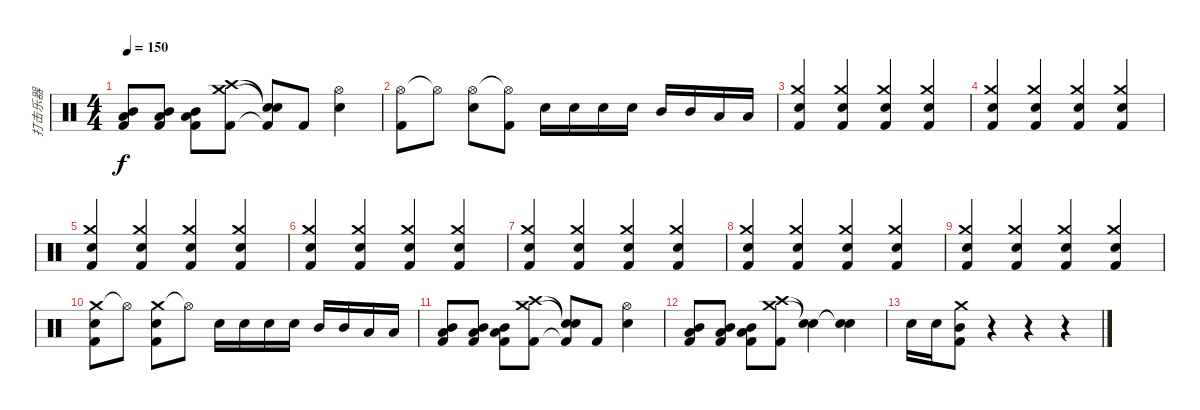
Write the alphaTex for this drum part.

\track ("打击乐器" "打击乐器") {instrument percussion}
\staff {score}
\articulation defaults
\ts (4 4)
\tempo 150
\clef neutral
\ks c
("Mid Tom (hit)" "Low Tom (hit)" "Kick (hit) 2").8{dy f} ("Mid Tom (hit)" "Low Tom (hit)" "Kick (hit) 2").8 ("Mid Tom (hit)" "Low Tom (hit)" "Kick (hit) 2").8 ("Crash high (hit)" "Crash medium (hit)" "Kick (hit) 2").8 ("Snare (hit)"{t} "Snare (hit)"{t} "Kick (hit) 2"{t}).8 "Kick (hit) 2".8 ("Hi-Hat (open)" "Snare (hit) 2").4 |
("Hi-Hat (open)" "Kick (hit) 2").8 "Hi-Hat (open)"{t}.8 ("Hi-Hat (open)" "Snare (hit) 2").8 ("Hi-Hat (open)"{t} "Kick (hit) 2").8 "Snare (hit) 2".16 "Snare (hit) 2".16 "Snare (hit) 2".16 "Snare (hit) 2".16 "Mid Tom (hit)".16 "Mid Tom (hit)".16 "Low Tom (hit)".16 "Low Tom (hit)".16 |
("Crash medium (hit)" "Snare (hit) 2" "Kick (hit) 2").4 ("Crash medium (hit)" "Snare (hit) 2" "Kick (hit) 2").4 ("Crash medium (hit)" "Snare (hit) 2" "Kick (hit) 2").4 ("Crash medium (hit)" "Snare (hit) 2" "Kick (hit) 2").4 |
("Crash medium (hit)" "Snare (hit) 2" "Kick (hit) 2").4 ("Crash medium (hit)" "Snare (hit) 2" "Kick (hit) 2").4 ("Crash medium (hit)" "Snare (hit) 2" "Kick (hit) 2").4 ("Crash medium (hit)" "Snare (hit) 2" "Kick (hit) 2").4 |
("Crash medium (hit)" "Snare (hit) 2" "Kick (hit) 2").4 ("Crash medium (hit)" "Snare (hit) 2" "Kick (hit) 2").4 ("Crash medium (hit)" "Snare (hit) 2" "Kick (hit) 2").4 ("Crash medium (hit)" "Snare (hit) 2" "Kick (hit) 2").4 |
("Crash medium (hit)" "Snare (hit) 2" "Kick (hit) 2").4 ("Crash medium (hit)" "Snare (hit) 2" "Kick (hit) 2").4 ("Crash medium (hit)" "Snare (hit) 2" "Kick (hit) 2").4 ("Crash medium (hit)" "Snare (hit) 2" "Kick (hit) 2").4 |
("Crash medium (hit)" "Snare (hit) 2" "Kick (hit) 2").4 ("Crash medium (hit)" "Snare (hit) 2" "Kick (hit) 2").4 ("Crash medium (hit)" "Snare (hit) 2" "Kick (hit) 2").4 ("Crash medium (hit)" "Snare (hit) 2" "Kick (hit) 2").4 |
("Crash medium (hit)" "Snare (hit) 2" "Kick (hit) 2").4 ("Crash medium (hit)" "Snare (hit) 2" "Kick (hit) 2").4 ("Crash medium (hit)" "Snare (hit) 2" "Kick (hit) 2").4 ("Crash medium (hit)" "Snare (hit) 2" "Kick (hit) 2").4 |
("Crash medium (hit)" "Snare (hit) 2" "Kick (hit) 2").4 ("Crash medium (hit)" "Snare (hit) 2" "Kick (hit) 2").4 ("Crash medium (hit)" "Snare (hit) 2" "Kick (hit) 2").4 ("Crash medium (hit)" "Snare (hit) 2" "Kick (hit) 2").4 |
("Crash medium (hit)" "Snare (hit) 2" "Kick (hit) 2").8 "Hi-Hat (open)"{t}.8 ("Crash medium (hit)" "Snare (hit) 2" "Kick (hit) 2").8 "Hi-Hat (open)"{t}.8 "Snare (hit) 2".16 "Snare (hit) 2".16 "Snare (hit) 2".16 "Snare (hit) 2".16 "Mid Tom (hit)".16 "Mid Tom (hit)".16 "Low Tom (hit)".16 "Low Tom (hit)".16 |
("Mid Tom (hit)" "Low Tom (hit)" "Kick (hit) 2").8 ("Mid Tom (hit)" "Low Tom (hit)" "Kick (hit) 2").8 ("Mid Tom (hit)" "Low Tom (hit)" "Kick (hit) 2").8 ("Crash high (hit)" "Crash medium (hit)" "Kick (hit) 2").8 ("Snare (hit)"{t} "Snare (hit)"{t} "Kick (hit) 2"{t}).8 "Kick (hit) 2".8 ("Hi-Hat (open)" "Snare (hit) 2").4 |
("Mid Tom (hit)" "Low Tom (hit)" "Kick (hit) 2").8 ("Mid Tom (hit)" "Low Tom (hit)" "Kick (hit) 2").8 ("Mid Tom (hit)" "Low Tom (hit)" "Kick (hit) 2").8 ("Crash high (hit)" "Crash medium (hit)" "Kick (hit) 2").8 ("Snare (hit)"{t} "Snare (hit)"{t}).4 ("Snare (hit)"{t} "Snare (hit)"{t}).4 |
"Snare (hit) 2".16 "Snare (hit) 2".16 ("Crash medium (hit)" "Mid Tom (hit)" "Kick (hit) 2").8 r.4 r.4 r.4
